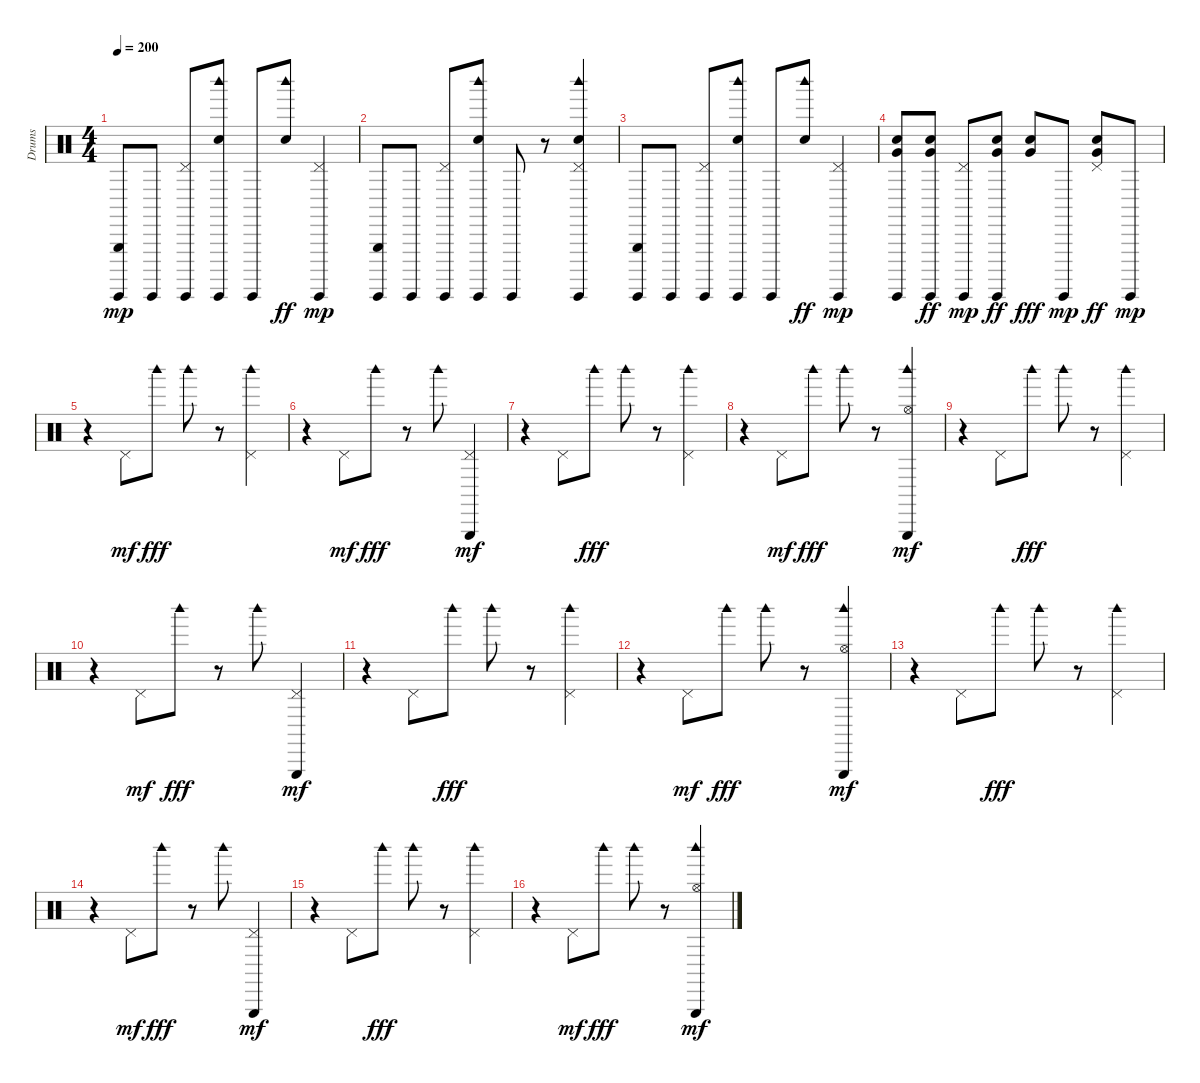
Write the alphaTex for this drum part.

\track ("Drums" "Drums") {instrument percussion}
\staff {score}
\articulation defaults
\ts (4 4)
\tempo 200
\clef neutral
\ks c
("Triangle (hit)" "Guiro (hit)").8{dy mp} "Guiro (hit)".8 ("Pedal Hi-Hat (hit)" "Guiro (hit)").8 ("Hand Clap (hit)" "Woodblock high (hit)" "Guiro (hit)").8 "Guiro (hit)".8 ("Hand Clap (hit)" "Woodblock high (hit)").8{dy ff} ("Pedal Hi-Hat (hit)" "Guiro (hit)").4{dy mp} |
("Triangle (hit)" "Guiro (hit)").8 "Guiro (hit)".8 ("Pedal Hi-Hat (hit)" "Guiro (hit)").8 ("Hand Clap (hit)" "Woodblock high (hit)" "Guiro (hit)").8 "Guiro (hit)".8 r.8 ("Hand Clap (hit)" "Woodblock high (hit)" "Pedal Hi-Hat (hit)" "Guiro (hit)").4 |
("Triangle (hit)" "Guiro (hit)").8 "Guiro (hit)".8 ("Pedal Hi-Hat (hit)" "Guiro (hit)").8 ("Hand Clap (hit)" "Woodblock high (hit)" "Guiro (hit)").8 "Guiro (hit)".8 ("Hand Clap (hit)" "Woodblock high (hit)").8{dy ff} ("Pedal Hi-Hat (hit)" "Guiro (hit)").4{dy mp} |
("Guiro (hit)" "Very Low Tom (hit)" "Electric Snare (hit)").8 ("Guiro (hit)" "Very Low Tom (hit)" "Electric Snare (hit)").8{dy ff} ("Pedal Hi-Hat (hit)" "Guiro (hit)").8{dy mp} ("Guiro (hit)" "Very Low Tom (hit)" "Electric Snare (hit)").8{dy ff} ("Very Low Tom (hit)" "Electric Snare (hit)").8{dy fff} "Guiro (hit)".8{dy mp} ("Pedal Hi-Hat (hit)" "Very Low Tom (hit)" "Electric Snare (hit)").8{dy ff} "Guiro (hit)".8{dy mp} |
r.4 "Pedal Hi-Hat (hit)".8{dy mf} "Woodblock high (hit)".8{dy fff} "Woodblock high (hit)".8 r.8 ("Pedal Hi-Hat (hit)" "Woodblock high (hit)").4 |
r.4 "Pedal Hi-Hat (hit)".8{dy mf} "Woodblock high (hit)".8{dy fff} r.8 "Woodblock high (hit)".8 ("Pedal Hi-Hat (hit)" "Triangle (hit)").4{dy mf} |
r.4 "Pedal Hi-Hat (hit)".8 "Woodblock high (hit)".8{dy fff} "Woodblock high (hit)".8 r.8 ("Pedal Hi-Hat (hit)" "Woodblock high (hit)").4 |
r.4 "Pedal Hi-Hat (hit)".8{dy mf} "Woodblock high (hit)".8{dy fff} "Woodblock high (hit)".8 r.8 ("Triangle (hit)" "Woodblock high (hit)" "Hi-Hat (open)").4{dy mf} |
r.4 "Pedal Hi-Hat (hit)".8 "Woodblock high (hit)".8{dy fff} "Woodblock high (hit)".8 r.8 ("Pedal Hi-Hat (hit)" "Woodblock high (hit)").4 |
r.4 "Pedal Hi-Hat (hit)".8{dy mf} "Woodblock high (hit)".8{dy fff} r.8 "Woodblock high (hit)".8 ("Pedal Hi-Hat (hit)" "Triangle (hit)").4{dy mf} |
r.4 "Pedal Hi-Hat (hit)".8 "Woodblock high (hit)".8{dy fff} "Woodblock high (hit)".8 r.8 ("Pedal Hi-Hat (hit)" "Woodblock high (hit)").4 |
r.4 "Pedal Hi-Hat (hit)".8{dy mf} "Woodblock high (hit)".8{dy fff} "Woodblock high (hit)".8 r.8 ("Woodblock high (hit)" "Hi-Hat (open)" "Triangle (hit)").4{dy mf} |
r.4 "Pedal Hi-Hat (hit)".8 "Woodblock high (hit)".8{dy fff} "Woodblock high (hit)".8 r.8 ("Pedal Hi-Hat (hit)" "Woodblock high (hit)").4 |
r.4 "Pedal Hi-Hat (hit)".8{dy mf} "Woodblock high (hit)".8{dy fff} r.8 "Woodblock high (hit)".8 ("Pedal Hi-Hat (hit)" "Triangle (hit)").4{dy mf} |
r.4 "Pedal Hi-Hat (hit)".8 "Woodblock high (hit)".8{dy fff} "Woodblock high (hit)".8 r.8 ("Pedal Hi-Hat (hit)" "Woodblock high (hit)").4 |
r.4 "Pedal Hi-Hat (hit)".8{dy mf} "Woodblock high (hit)".8{dy fff} "Woodblock high (hit)".8 r.8 ("Triangle (hit)" "Woodblock high (hit)" "Hi-Hat (open)").4{dy mf}
